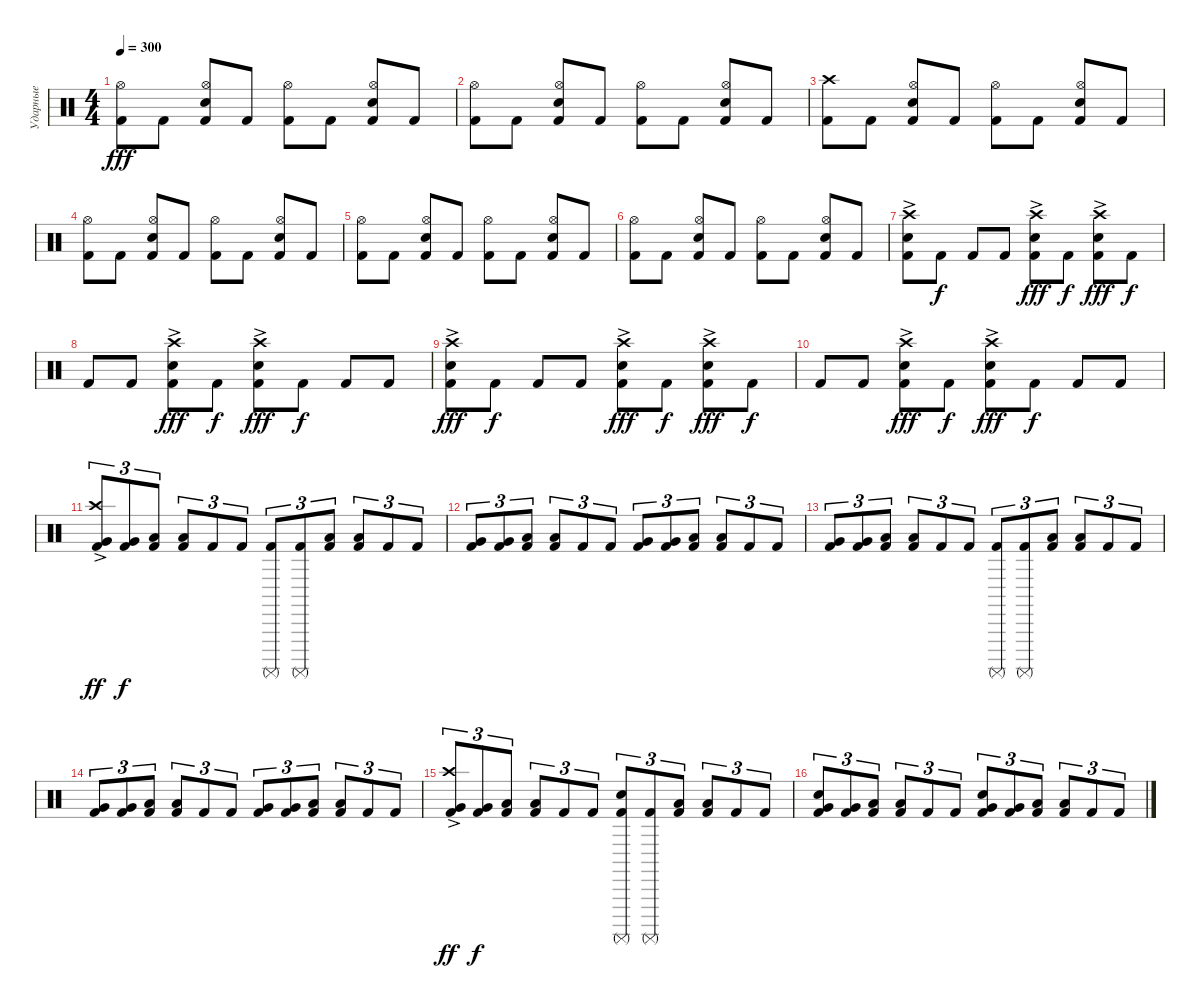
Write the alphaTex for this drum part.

\track ("Ударные" "Ударные") {instrument percussion}
\staff {score}
\articulation defaults
\ts (4 4)
\tempo 300
\clef neutral
\ks c
("Kick (hit) 2" "Hi-Hat (open)").8{dy fff} "Kick (hit) 2".8 ("Kick (hit) 2" "Snare (hit) 2" "Hi-Hat (open)").8 "Kick (hit) 2".8 ("Kick (hit) 2" "Hi-Hat (open)").8 "Kick (hit) 2".8 ("Kick (hit) 2" "Snare (hit) 2" "Hi-Hat (open)").8 "Kick (hit) 2".8 |
("Kick (hit) 2" "Hi-Hat (open)").8 "Kick (hit) 2".8 ("Kick (hit) 2" "Snare (hit) 2" "Hi-Hat (open)").8 "Kick (hit) 2".8 ("Kick (hit) 2" "Hi-Hat (open)").8 "Kick (hit) 2".8 ("Kick (hit) 2" "Snare (hit) 2" "Hi-Hat (open)").8 "Kick (hit) 2".8 |
("Kick (hit) 2" "Crash high (hit)").8 "Kick (hit) 2".8 ("Kick (hit) 2" "Snare (hit) 2" "Hi-Hat (open)").8 "Kick (hit) 2".8 ("Kick (hit) 2" "Hi-Hat (open)").8 "Kick (hit) 2".8 ("Kick (hit) 2" "Snare (hit) 2" "Hi-Hat (open)").8 "Kick (hit) 2".8 |
("Kick (hit) 2" "Hi-Hat (open)").8 "Kick (hit) 2".8 ("Kick (hit) 2" "Snare (hit) 2" "Hi-Hat (open)").8 "Kick (hit) 2".8 ("Kick (hit) 2" "Hi-Hat (open)").8 "Kick (hit) 2".8 ("Kick (hit) 2" "Snare (hit) 2" "Hi-Hat (open)").8 "Kick (hit) 2".8 |
("Kick (hit) 2" "Hi-Hat (open)").8 "Kick (hit) 2".8 ("Kick (hit) 2" "Snare (hit) 2" "Hi-Hat (open)").8 "Kick (hit) 2".8 ("Kick (hit) 2" "Hi-Hat (open)").8 "Kick (hit) 2".8 ("Kick (hit) 2" "Snare (hit) 2" "Hi-Hat (open)").8 "Kick (hit) 2".8 |
("Kick (hit) 2" "Hi-Hat (open)").8 "Kick (hit) 2".8 ("Kick (hit) 2" "Snare (hit) 2" "Hi-Hat (open)").8 "Kick (hit) 2".8 ("Kick (hit) 2" "Hi-Hat (open)").8 "Kick (hit) 2".8 ("Kick (hit) 2" "Snare (hit) 2" "Hi-Hat (open)").8 "Kick (hit) 2".8 |
("Kick (hit) 2" "Snare (hit) 2" "Crash high (hit)"{ac}).8 "Kick (hit) 2".8{dy f} "Kick (hit) 2".8 "Kick (hit) 2".8 ("Kick (hit) 2" "Snare (hit) 2" "Crash high (hit)"{ac}).8{dy fff} "Kick (hit) 2".8{dy f} ("Kick (hit) 2" "Snare (hit) 2" "Crash high (hit)"{ac}).8{dy fff} "Kick (hit) 2".8{dy f} |
"Kick (hit) 2".8 "Kick (hit) 2".8 ("Kick (hit) 2" "Snare (hit) 2" "Crash high (hit)"{ac}).8{dy fff} "Kick (hit) 2".8{dy f} ("Kick (hit) 2" "Snare (hit) 2" "Crash high (hit)"{ac}).8{dy fff} "Kick (hit) 2".8{dy f} "Kick (hit) 2".8 "Kick (hit) 2".8 |
("Kick (hit) 2" "Snare (hit) 2" "Crash high (hit)"{ac}).8{dy fff} "Kick (hit) 2".8{dy f} "Kick (hit) 2".8 "Kick (hit) 2".8 ("Kick (hit) 2" "Snare (hit) 2" "Crash high (hit)"{ac}).8{dy fff} "Kick (hit) 2".8{dy f} ("Kick (hit) 2" "Snare (hit) 2" "Crash high (hit)"{ac}).8{dy fff} "Kick (hit) 2".8{dy f} |
"Kick (hit) 2".8 "Kick (hit) 2".8 ("Kick (hit) 2" "Snare (hit) 2" "Crash high (hit)"{ac}).8{dy fff} "Kick (hit) 2".8{dy f} ("Kick (hit) 2" "Snare (hit) 2" "Crash high (hit)"{ac}).8{dy fff} "Kick (hit) 2".8{dy f} "Kick (hit) 2".8 "Kick (hit) 2".8 |
("Kick (hit) 2" "Very Low Tom (hit)" "Crash high (hit)"{ac}).8{tu (3 2) dy ff} ("Kick (hit) 2" "Very Low Tom (hit)").8{tu (3 2) dy f} ("Kick (hit) 2" "Low Floor Tom (hit)").8{tu (3 2)} ("Kick (hit) 2" "Low Floor Tom (hit)").8{tu (3 2)} "Kick (hit) 2".8{tu (3 2)} "Kick (hit) 2".8{tu (3 2)} ("Kick (hit) 2" "Surdo (mute)").8{tu (3 2)} ("Kick (hit) 2" "Surdo (mute)").8{tu (3 2)} ("Kick (hit) 2" "Low Floor Tom (hit)").8{tu (3 2)} ("Kick (hit) 2" "Low Floor Tom (hit)").8{tu (3 2)} "Kick (hit) 2".8{tu (3 2)} "Kick (hit) 2".8{tu (3 2)} |
("Kick (hit) 2" "Very Low Tom (hit)").8{tu (3 2)} ("Kick (hit) 2" "Very Low Tom (hit)").8{tu (3 2)} ("Kick (hit) 2" "Low Floor Tom (hit)").8{tu (3 2)} ("Kick (hit) 2" "Low Floor Tom (hit)").8{tu (3 2)} "Kick (hit) 2".8{tu (3 2)} "Kick (hit) 2".8{tu (3 2)} ("Kick (hit) 2" "Very Low Tom (hit)").8{tu (3 2)} ("Kick (hit) 2" "Very Low Tom (hit)").8{tu (3 2)} ("Kick (hit) 2" "Low Floor Tom (hit)").8{tu (3 2)} ("Kick (hit) 2" "Low Floor Tom (hit)").8{tu (3 2)} "Kick (hit) 2".8{tu (3 2)} "Kick (hit) 2".8{tu (3 2)} |
("Kick (hit) 2" "Very Low Tom (hit)").8{tu (3 2)} ("Kick (hit) 2" "Very Low Tom (hit)").8{tu (3 2)} ("Kick (hit) 2" "Low Floor Tom (hit)").8{tu (3 2)} ("Kick (hit) 2" "Low Floor Tom (hit)").8{tu (3 2)} "Kick (hit) 2".8{tu (3 2)} "Kick (hit) 2".8{tu (3 2)} ("Kick (hit) 2" "Surdo (mute)").8{tu (3 2)} ("Kick (hit) 2" "Surdo (mute)").8{tu (3 2)} ("Kick (hit) 2" "Low Floor Tom (hit)").8{tu (3 2)} ("Kick (hit) 2" "Low Floor Tom (hit)").8{tu (3 2)} "Kick (hit) 2".8{tu (3 2)} "Kick (hit) 2".8{tu (3 2)} |
("Kick (hit) 2" "Very Low Tom (hit)").8{tu (3 2)} ("Kick (hit) 2" "Very Low Tom (hit)").8{tu (3 2)} ("Kick (hit) 2" "Low Floor Tom (hit)").8{tu (3 2)} ("Kick (hit) 2" "Low Floor Tom (hit)").8{tu (3 2)} "Kick (hit) 2".8{tu (3 2)} "Kick (hit) 2".8{tu (3 2)} ("Kick (hit) 2" "Very Low Tom (hit)").8{tu (3 2)} ("Kick (hit) 2" "Very Low Tom (hit)").8{tu (3 2)} ("Kick (hit) 2" "Low Floor Tom (hit)").8{tu (3 2)} ("Kick (hit) 2" "Low Floor Tom (hit)").8{tu (3 2)} "Kick (hit) 2".8{tu (3 2)} "Kick (hit) 2".8{tu (3 2)} |
("Kick (hit) 2" "Very Low Tom (hit)" "Crash high (hit)"{ac}).8{tu (3 2) dy ff} ("Kick (hit) 2" "Very Low Tom (hit)").8{tu (3 2) dy f} ("Kick (hit) 2" "Low Floor Tom (hit)").8{tu (3 2)} ("Kick (hit) 2" "Low Floor Tom (hit)").8{tu (3 2)} "Kick (hit) 2".8{tu (3 2)} "Kick (hit) 2".8{tu (3 2)} ("Kick (hit) 2" "Surdo (mute)" "Electric Snare (hit)").8{tu (3 2)} ("Kick (hit) 2" "Surdo (mute)").8{tu (3 2)} ("Kick (hit) 2" "Low Floor Tom (hit)").8{tu (3 2)} ("Kick (hit) 2" "Low Floor Tom (hit)").8{tu (3 2)} "Kick (hit) 2".8{tu (3 2)} "Kick (hit) 2".8{tu (3 2)} |
("Kick (hit) 2" "Very Low Tom (hit)" "Electric Snare (hit)").8{tu (3 2)} ("Kick (hit) 2" "Very Low Tom (hit)").8{tu (3 2)} ("Kick (hit) 2" "Low Floor Tom (hit)").8{tu (3 2)} ("Kick (hit) 2" "Low Floor Tom (hit)").8{tu (3 2)} "Kick (hit) 2".8{tu (3 2)} "Kick (hit) 2".8{tu (3 2)} ("Kick (hit) 2" "Very Low Tom (hit)" "Electric Snare (hit)").8{tu (3 2)} ("Kick (hit) 2" "Very Low Tom (hit)").8{tu (3 2)} ("Kick (hit) 2" "Low Floor Tom (hit)").8{tu (3 2)} ("Kick (hit) 2" "Low Floor Tom (hit)").8{tu (3 2)} "Kick (hit) 2".8{tu (3 2)} "Kick (hit) 2".8{tu (3 2)}
